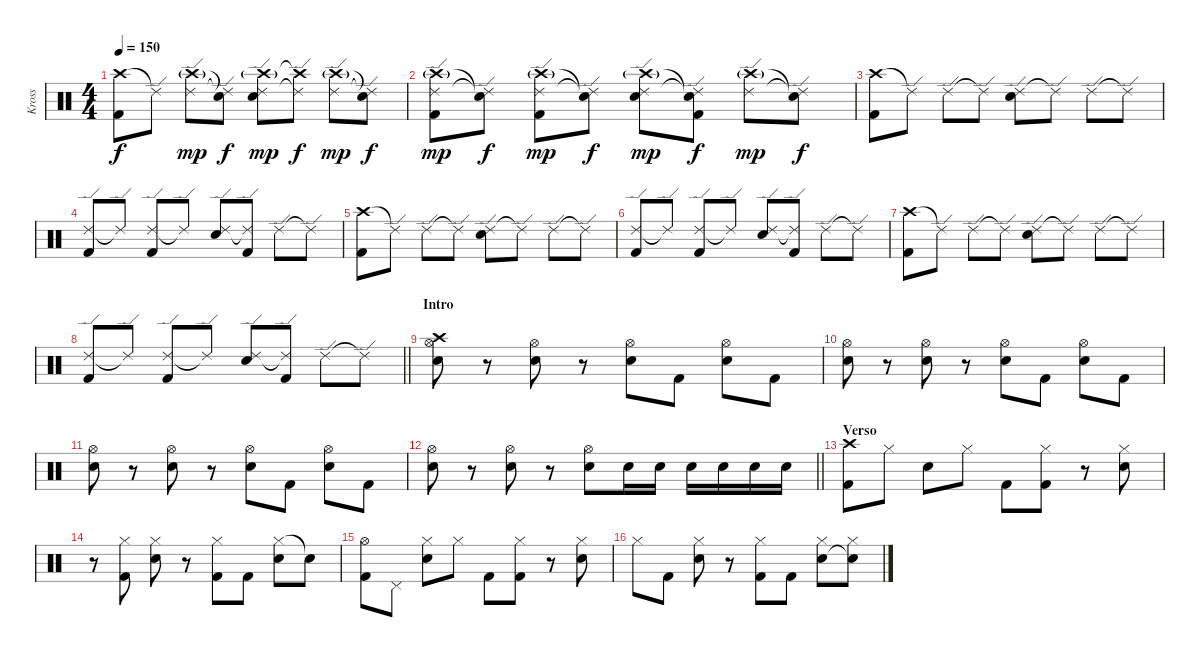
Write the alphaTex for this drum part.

\track ("Kross" "Kross") {instrument percussion}
\staff {score}
\articulation defaults
\ts (4 4)
\tempo 150
\clef neutral
\ks c
("Crash high (hit)" "Kick (hit) 2").8{dy f} "Ride (edge) 2"{t}.8 ("Crash high (hit)"{g} "Ride (edge) 2").8{dy mp} ("Snare (hit)"{t} "Ride (edge) 2"{t}).8{dy f} ("Crash high (hit)"{g} "Ride (edge) 2" "Electric Snare (hit)").8{dy mp} ("Crash high (hit)"{t} "Ride (edge) 2"{t}).8{dy f} ("Crash high (hit)"{g} "Ride (edge) 2").8{dy mp} ("Snare (hit)"{t} "Ride (edge) 2"{t}).8{dy f} |
("Crash high (hit)"{g} "Ride (edge) 2" "Kick (hit) 2").8{dy mp} ("Snare (hit)"{t} "Ride (edge) 2"{t}).8{dy f} ("Crash high (hit)"{g} "Ride (edge) 2" "Kick (hit) 2").8{dy mp} ("Snare (hit)"{t} "Ride (edge) 2"{t}).8{dy f} ("Crash high (hit)"{g} "Ride (edge) 2" "Electric Snare (hit)").8{dy mp} ("Snare (hit)"{t} "Ride (edge) 2"{t} "Kick (hit) 2").8{dy f} ("Crash high (hit)"{g} "Ride (edge) 2").8{dy mp} ("Snare (hit)"{t} "Ride (edge) 2"{t}).8{dy f} |
("Crash high (hit)" "Kick (hit) 2").8 "Ride (edge) 2"{t}.8 "Ride (edge) 2".8 "Ride (edge) 2"{t}.8 ("Ride (edge) 2" "Electric Snare (hit)").8 "Ride (edge) 2"{t}.8 "Ride (edge) 2".8 "Ride (edge) 2"{t}.8 |
("Ride (edge) 2" "Kick (hit) 2").8 "Ride (edge) 2"{t}.8 ("Ride (edge) 2" "Kick (hit) 2").8 "Ride (edge) 2"{t}.8 ("Ride (edge) 2" "Electric Snare (hit)").8 ("Ride (edge) 2"{t} "Kick (hit) 2").8 "Ride (edge) 2".8 "Ride (edge) 2"{t}.8 |
("Crash high (hit)" "Kick (hit) 2").8 "Ride (edge) 2"{t}.8 "Ride (edge) 2".8 "Ride (edge) 2"{t}.8 ("Ride (edge) 2" "Electric Snare (hit)").8 "Ride (edge) 2"{t}.8 "Ride (edge) 2".8 "Ride (edge) 2"{t}.8 |
("Ride (edge) 2" "Kick (hit) 2").8 "Ride (edge) 2"{t}.8 ("Ride (edge) 2" "Kick (hit) 2").8 "Ride (edge) 2"{t}.8 ("Ride (edge) 2" "Electric Snare (hit)").8 ("Ride (edge) 2"{t} "Kick (hit) 2").8 "Ride (edge) 2".8 "Ride (edge) 2"{t}.8 |
("Crash high (hit)" "Kick (hit) 2").8 "Ride (edge) 2"{t}.8 "Ride (edge) 2".8 "Ride (edge) 2"{t}.8 ("Ride (edge) 2" "Electric Snare (hit)").8 "Ride (edge) 2"{t}.8 "Ride (edge) 2".8 "Ride (edge) 2"{t}.8 |
\barLineRight lightlight
("Ride (edge) 2" "Kick (hit) 2").8 "Ride (edge) 2"{t}.8 ("Ride (edge) 2" "Kick (hit) 2").8 "Ride (edge) 2"{t}.8 ("Ride (edge) 2" "Electric Snare (hit)").8 ("Ride (edge) 2"{t} "Kick (hit) 2").8 "Ride (edge) 2".8 "Ride (edge) 2"{t}.8 |
\section ("" "Intro")
("Crash high (hit)" "Hi-Hat (open)" "Electric Snare (hit)").8 r.8 ("Hi-Hat (open)" "Electric Snare (hit)").8 r.8 ("Hi-Hat (open)" "Electric Snare (hit)").8 "Kick (hit) 2".8 ("Hi-Hat (open)" "Electric Snare (hit)").8 "Kick (hit) 2".8 |
("Hi-Hat (open)" "Electric Snare (hit)").8 r.8 ("Hi-Hat (open)" "Electric Snare (hit)").8 r.8 ("Hi-Hat (open)" "Electric Snare (hit)").8 "Kick (hit) 2".8 ("Hi-Hat (open)" "Electric Snare (hit)").8 "Kick (hit) 2".8 |
("Hi-Hat (open)" "Electric Snare (hit)").8 r.8 ("Hi-Hat (open)" "Electric Snare (hit)").8 r.8 ("Hi-Hat (open)" "Electric Snare (hit)").8 "Kick (hit) 2".8 ("Hi-Hat (open)" "Electric Snare (hit)").8 "Kick (hit) 2".8 |
\barLineRight lightlight
("Hi-Hat (open)" "Electric Snare (hit)").8 r.8 ("Hi-Hat (open)" "Electric Snare (hit)").8 r.8 ("Hi-Hat (open)" "Electric Snare (hit)").8 "Electric Snare (hit)".16 "Electric Snare (hit)".16 "Electric Snare (hit)".16 "Electric Snare (hit)".16 "Electric Snare (hit)".16 "Electric Snare (hit)".16 |
\section ("" "Verso")
("Crash high (hit)" "Kick (hit) 2").8 "Hi-Hat (closed)".8 "Electric Snare (hit)".8 "Hi-Hat (closed)".8 "Kick (hit) 2".8 ("Hi-Hat (closed)" "Kick (hit) 2").8 r.8 ("Hi-Hat (closed)" "Electric Snare (hit)").8 |
r.8 ("Hi-Hat (closed)" "Kick (hit) 2").8 ("Hi-Hat (closed)" "Electric Snare (hit)").8 r.8 ("Hi-Hat (closed)" "Kick (hit) 2").8 "Kick (hit) 2".8 ("Hi-Hat (closed)" "Electric Snare (hit)").8 "Snare (hit)"{t}.8 |
("Hi-Hat (open)" "Kick (hit) 2").8 "Pedal Hi-Hat (hit)".8 ("Hi-Hat (closed)" "Electric Snare (hit)").8 "Hi-Hat (closed)".8 "Kick (hit) 2".8 ("Hi-Hat (closed)" "Kick (hit) 2").8 r.8 ("Hi-Hat (closed)" "Electric Snare (hit)").8 |
"Hi-Hat (closed)".8 "Kick (hit) 2".8 ("Hi-Hat (closed)" "Electric Snare (hit)").8 r.8 ("Hi-Hat (closed)" "Kick (hit) 2").8 "Kick (hit) 2".8 ("Hi-Hat (closed)" "Electric Snare (hit)").8 ("Hi-Hat (closed)" "Snare (hit)"{t}).8
